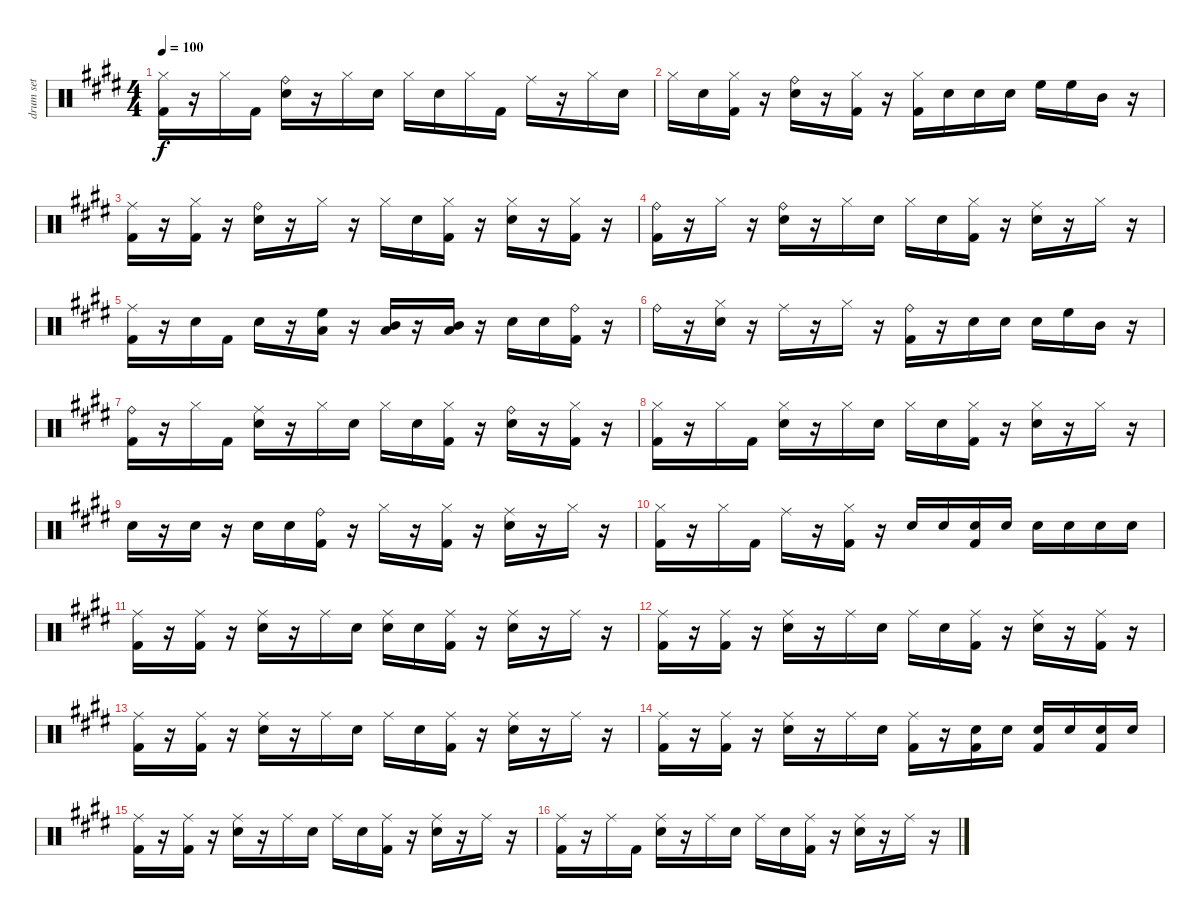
\track ("drum set" "drum set") {instrument percussion}
\staff {score}
\articulation defaults
\ts (4 4)
\tempo 100
\clef neutral
\ks e
("Hi-Hat (closed)" "Kick (hit) 2").16{dy f} r.16 "Hi-Hat (closed)".16 "Kick (hit) 2".16 ("Ride (bell)" "Snare (hit) 2").16 r.16 "Hi-Hat (closed)".16 "Snare (hit) 2".16 "Hi-Hat (closed)".16 "Snare (hit) 2".16 "Hi-Hat (closed)".16 "Kick (hit) 2".16 "Ride (middle)".16 r.16 "Hi-Hat (closed)".16 "Snare (hit) 2".16 |
"Hi-Hat (closed)".16 "Snare (hit) 2".16 ("Hi-Hat (closed)" "Kick (hit) 2").16 r.16 ("Ride (bell)" "Snare (hit) 2").16 r.16 ("Hi-Hat (closed)" "Kick (hit) 2").16 r.16 ("Hi-Hat (closed)" "Kick (hit) 2").16 "Snare (hit) 2".16 "Snare (hit) 2".16 "Snare (hit) 2".16 "High Floor Tom (hit)".16 "High Floor Tom (hit)".16 "Mid Tom (hit)".16 r.16 |
("Ride (middle)" "Kick (hit) 2").16 r.16 ("Hi-Hat (closed)" "Kick (hit) 2").16 r.16 ("Ride (bell)" "Snare (hit) 2").16 r.16 "Hi-Hat (closed)".16 r.16 "Hi-Hat (closed)".16 "Snare (hit) 2".16 ("Hi-Hat (closed)" "Kick (hit) 2").16 r.16 ("Hi-Hat (closed)" "Snare (hit) 2").16 r.16 ("Hi-Hat (closed)" "Kick (hit) 2").16 r.16 |
("Ride (bell)" "Kick (hit) 2").16 r.16 "Hi-Hat (closed)".16 r.16 ("Ride (bell)" "Snare (hit) 2").16 r.16 "Hi-Hat (closed)".16 "Snare (hit) 2".16 "Hi-Hat (closed)".16 "Snare (hit) 2".16 ("Hi-Hat (closed)" "Kick (hit) 2").16 r.16 ("Ride (middle)" "Snare (hit) 2").16 r.16 "Hi-Hat (closed)".16 r.16 |
("Ride (middle)" "Kick (hit) 2").16 r.16 "Snare (hit) 2".16 "Kick (hit) 2".16 "Snare (hit) 2".16 r.16 ("High Floor Tom (hit)" "Low Tom (hit)").16 r.16 ("Mid Tom (hit)" "Low Tom (hit)").16 r.16 ("Mid Tom (hit)" "Low Tom (hit)").16 r.16 "Snare (hit) 2".16 "Snare (hit) 2".16 ("Ride (bell)" "Kick (hit) 2").16 r.16 |
"Ride (bell)".16 r.16 ("Hi-Hat (closed)" "Snare (hit) 2").16 r.16 "Ride (middle)".16 r.16 "Hi-Hat (closed)".16 r.16 ("Ride (bell)" "Kick (hit) 2").16 r.16 "Snare (hit) 2".16 "Snare (hit) 2".16 "Snare (hit) 2".16 "High Floor Tom (hit)".16 "Mid Tom (hit)".16 r.16 |
("Ride (bell)" "Kick (hit) 2").16 r.16 "Hi-Hat (closed)".16 "Kick (hit) 2".16 ("Ride (middle)" "Snare (hit) 2").16 r.16 "Hi-Hat (closed)".16 "Snare (hit) 2".16 "Hi-Hat (closed)".16 "Snare (hit) 2".16 ("Hi-Hat (closed)" "Kick (hit) 2").16 r.16 ("Ride (bell)" "Snare (hit) 2").16 r.16 ("Hi-Hat (closed)" "Kick (hit) 2").16 r.16 |
("Hi-Hat (closed)" "Kick (hit) 2").16 r.16 "Hi-Hat (closed)".16 "Kick (hit) 2".16 ("Hi-Hat (closed)" "Snare (hit) 2").16 r.16 "Hi-Hat (closed)".16 "Snare (hit) 2".16 "Hi-Hat (closed)".16 "Snare (hit) 2".16 ("Hi-Hat (closed)" "Kick (hit) 2").16 r.16 ("Hi-Hat (closed)" "Snare (hit) 2").16 r.16 "Hi-Hat (closed)".16 r.16 |
"Snare (hit) 2".16 r.16 "Snare (hit) 2".16 r.16 "Snare (hit) 2".16 "Snare (hit) 2".16 ("Ride (bell)" "Kick (hit) 2").16 r.16 "Hi-Hat (closed)".16 r.16 ("Hi-Hat (closed)" "Kick (hit) 2").16 r.16 ("Ride (middle)" "Snare (hit) 2").16 r.16 "Hi-Hat (closed)".16 r.16 |
("Hi-Hat (closed)" "Kick (hit) 2").16 r.16 "Hi-Hat (closed)".16 "Kick (hit) 2".16 "Ride (middle)".16 r.16 ("Hi-Hat (closed)" "Kick (hit) 2").16 r.16 "Snare (hit) 2".16 "Snare (hit) 2".16 ("Snare (hit) 2" "Kick (hit) 2").16 "Snare (hit) 2".16 "Snare (hit) 2".16 "Snare (hit) 2".16 "Snare (hit) 2".16 "Snare (hit) 2".16 |
("Ride (middle)" "Kick (hit) 2").16 r.16 ("Ride (middle)" "Kick (hit) 2").16 r.16 ("Ride (middle)" "Snare (hit) 2").16 r.16 "Ride (middle)".16 "Snare (hit) 2".16 ("Ride (middle)" "Snare (hit) 2").16 "Snare (hit) 2".16 ("Ride (middle)" "Kick (hit) 2").16 r.16 ("Ride (middle)" "Snare (hit) 2").16 r.16 "Ride (middle)".16 r.16 |
("Ride (middle)" "Kick (hit) 2").16 r.16 ("Ride (middle)" "Kick (hit) 2").16 r.16 ("Ride (middle)" "Snare (hit) 2").16 r.16 "Ride (middle)".16 "Snare (hit) 2".16 "Ride (middle)".16 "Snare (hit) 2".16 ("Ride (middle)" "Kick (hit) 2").16 r.16 ("Ride (middle)" "Snare (hit) 2").16 r.16 ("Ride (middle)" "Kick (hit) 2").16 r.16 |
("Ride (middle)" "Kick (hit) 2").16 r.16 ("Ride (middle)" "Kick (hit) 2").16 r.16 ("Ride (middle)" "Snare (hit) 2").16 r.16 "Ride (middle)".16 "Snare (hit) 2".16 "Ride (middle)".16 "Snare (hit) 2".16 ("Ride (middle)" "Kick (hit) 2").16 r.16 ("Ride (middle)" "Snare (hit) 2").16 r.16 "Ride (middle)".16 r.16 |
("Ride (middle)" "Kick (hit) 2").16 r.16 ("Ride (middle)" "Kick (hit) 2").16 r.16 ("Ride (middle)" "Snare (hit) 2").16 r.16 "Ride (middle)".16 "Snare (hit) 2".16 ("Ride (middle)" "Kick (hit) 2").16 r.16 ("Snare (hit) 2" "Kick (hit) 2").16 "Snare (hit) 2".16 ("Snare (hit) 2" "Kick (hit) 2").16 "Snare (hit) 2".16 ("Snare (hit) 2" "Kick (hit) 2").16 "Snare (hit) 2".16 |
("Ride (middle)" "Kick (hit) 2").16 r.16 ("Ride (middle)" "Kick (hit) 2").16 r.16 ("Ride (middle)" "Snare (hit) 2").16 r.16 "Ride (middle)".16 "Snare (hit) 2".16 "Ride (middle)".16 "Snare (hit) 2".16 ("Ride (middle)" "Kick (hit) 2").16 r.16 ("Ride (middle)" "Snare (hit) 2").16 r.16 "Ride (middle)".16 r.16 |
("Ride (middle)" "Kick (hit) 2").16 r.16 "Ride (middle)".16 "Kick (hit) 2".16 ("Ride (middle)" "Snare (hit) 2").16 r.16 "Ride (middle)".16 "Snare (hit) 2".16 "Ride (middle)".16 "Snare (hit) 2".16 ("Ride (middle)" "Kick (hit) 2").16 r.16 ("Ride (middle)" "Snare (hit) 2").16 r.16 "Ride (middle)".16 r.16
